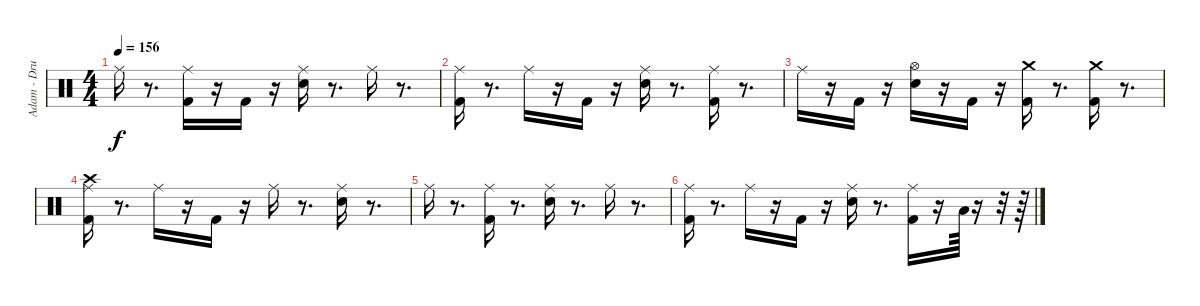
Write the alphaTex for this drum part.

\track ("Adam - Drums" "Adam - Dru") {instrument percussion}
\staff {score}
\articulation defaults
\ts (4 4)
\tempo 156
\clef neutral
\ks c "Ride (middle)".16{dy f}
r.8{d} ("Kick (hit) 2" "Ride (middle)").16 r.16 "Kick (hit) 2".16 r.16 ("Snare (hit) 2" "Ride (middle)").16 r.8{d} "Ride (middle)".16 r.8{d} |
("Kick (hit) 2" "Ride (middle)").16 r.8{d} "Ride (middle)".16 r.16 "Kick (hit) 2".16 r.16 ("Snare (hit) 2" "Ride (middle)").16 r.8{d} ("Kick (hit) 2" "Ride (middle)").16 r.8{d} |
"Ride (middle)".16 r.16 "Kick (hit) 2".16 r.16 ("Snare (hit) 2" "Hi-Hat (open)").16 r.16 "Kick (hit) 2".16 r.16 ("Crash medium (hit)" "Kick (hit) 2").16 r.8{d} ("Crash medium (hit)" "Kick (hit) 2").16 r.8{d} |
("Crash high (hit)" "Ride (middle)" "Kick (hit) 2").16 r.8{d} "Ride (middle)".16 r.16 "Kick (hit) 2".16 r.16 "Ride (middle)".16 r.8{d} ("Snare (hit) 2" "Ride (middle)").16 r.8{d} |
"Ride (middle)".16 r.8{d} ("Kick (hit) 2" "Ride (middle)").16 r.8{d} ("Snare (hit) 2" "Ride (middle)").16 r.8{d} "Ride (middle)".16 r.8{d} |
("Ride (middle)" "Kick (hit) 2").16 r.8{d} "Ride (middle)".16 r.16 "Kick (hit) 2".16 r.16 ("Snare (hit) 2" "Ride (middle)").16 r.8{d} ("Kick (hit) 2" "Ride (middle)").16 r.16 "Low Tom (hit)".64 r.16 r.32 r.64
